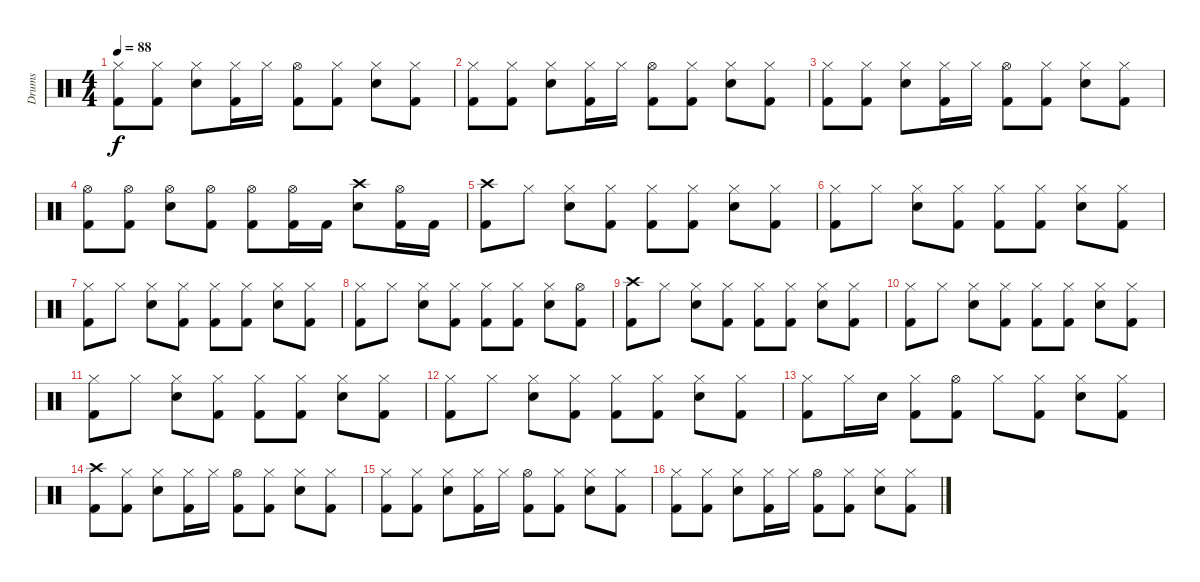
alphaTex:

\track ("Drums" "Drums") {instrument percussion}
\staff {score}
\articulation defaults
\ts (4 4)
\tempo 88
\clef neutral
\ks c
("Hi-Hat (closed)" "Kick (hit) 2").8{dy f} ("Hi-Hat (closed)" "Kick (hit) 2").8 ("Hi-Hat (closed)" "Electric Snare (hit)").8 ("Hi-Hat (closed)" "Kick (hit) 2").16 "Hi-Hat (closed)".16 ("Hi-Hat (open)" "Kick (hit) 2").8 ("Hi-Hat (closed)" "Kick (hit) 2").8 ("Hi-Hat (closed)" "Electric Snare (hit)").8 ("Hi-Hat (closed)" "Kick (hit) 2").8 |
("Hi-Hat (closed)" "Kick (hit) 2").8 ("Hi-Hat (closed)" "Kick (hit) 2").8 ("Hi-Hat (closed)" "Electric Snare (hit)").8 ("Hi-Hat (closed)" "Kick (hit) 2").16 "Hi-Hat (closed)".16 ("Hi-Hat (open)" "Kick (hit) 2").8 ("Hi-Hat (closed)" "Kick (hit) 2").8 ("Hi-Hat (closed)" "Electric Snare (hit)").8 ("Hi-Hat (closed)" "Kick (hit) 2").8 |
("Hi-Hat (closed)" "Kick (hit) 2").8 ("Hi-Hat (closed)" "Kick (hit) 2").8 ("Hi-Hat (closed)" "Electric Snare (hit)").8 ("Hi-Hat (closed)" "Kick (hit) 2").16 "Hi-Hat (closed)".16 ("Hi-Hat (open)" "Kick (hit) 2").8 ("Hi-Hat (closed)" "Kick (hit) 2").8 ("Hi-Hat (closed)" "Electric Snare (hit)").8 ("Hi-Hat (closed)" "Kick (hit) 2").8 |
("Hi-Hat (open)" "Kick (hit) 2").8 ("Hi-Hat (open)" "Kick (hit) 2").8 ("Hi-Hat (open)" "Electric Snare (hit)").8 ("Hi-Hat (open)" "Kick (hit) 2").8 ("Hi-Hat (open)" "Kick (hit) 2").8 ("Hi-Hat (open)" "Kick (hit) 2").16 "Kick (hit) 2".16 ("Crash high (hit)" "Electric Snare (hit)").8 ("Hi-Hat (open)" "Kick (hit) 2").16 "Kick (hit) 2".16 |
("Crash high (hit)" "Kick (hit) 2").8 "Hi-Hat (closed)".8 ("Hi-Hat (closed)" "Electric Snare (hit)").8 ("Hi-Hat (closed)" "Kick (hit) 2").8 ("Hi-Hat (closed)" "Kick (hit) 2").8 ("Hi-Hat (closed)" "Kick (hit) 2").8 ("Hi-Hat (closed)" "Electric Snare (hit)").8 ("Hi-Hat (closed)" "Kick (hit) 2").8 |
("Hi-Hat (closed)" "Kick (hit) 2").8 "Hi-Hat (closed)".8 ("Hi-Hat (closed)" "Electric Snare (hit)").8 ("Hi-Hat (closed)" "Kick (hit) 2").8 ("Hi-Hat (closed)" "Kick (hit) 2").8 ("Hi-Hat (closed)" "Kick (hit) 2").8 ("Hi-Hat (closed)" "Electric Snare (hit)").8 ("Hi-Hat (closed)" "Kick (hit) 2").8 |
("Hi-Hat (closed)" "Kick (hit) 2").8 "Hi-Hat (closed)".8 ("Hi-Hat (closed)" "Electric Snare (hit)").8 ("Hi-Hat (closed)" "Kick (hit) 2").8 ("Hi-Hat (closed)" "Kick (hit) 2").8 ("Hi-Hat (closed)" "Kick (hit) 2").8 ("Hi-Hat (closed)" "Electric Snare (hit)").8 ("Hi-Hat (closed)" "Kick (hit) 2").8 |
("Hi-Hat (closed)" "Kick (hit) 2").8 "Hi-Hat (closed)".8 ("Hi-Hat (closed)" "Electric Snare (hit)").8 ("Hi-Hat (closed)" "Kick (hit) 2").8 ("Hi-Hat (closed)" "Kick (hit) 2").8 ("Hi-Hat (closed)" "Kick (hit) 2").8 ("Hi-Hat (closed)" "Electric Snare (hit)").8 ("Hi-Hat (open)" "Kick (hit) 2").8 |
("Crash high (hit)" "Kick (hit) 2").8 "Hi-Hat (closed)".8 ("Hi-Hat (closed)" "Electric Snare (hit)").8 ("Hi-Hat (closed)" "Kick (hit) 2").8 ("Hi-Hat (closed)" "Kick (hit) 2").8 ("Hi-Hat (closed)" "Kick (hit) 2").8 ("Hi-Hat (closed)" "Electric Snare (hit)").8 ("Hi-Hat (closed)" "Kick (hit) 2").8 |
("Hi-Hat (closed)" "Kick (hit) 2").8 "Hi-Hat (closed)".8 ("Hi-Hat (closed)" "Electric Snare (hit)").8 ("Hi-Hat (closed)" "Kick (hit) 2").8 ("Hi-Hat (closed)" "Kick (hit) 2").8 ("Hi-Hat (closed)" "Kick (hit) 2").8 ("Hi-Hat (closed)" "Electric Snare (hit)").8 ("Hi-Hat (closed)" "Kick (hit) 2").8 |
("Hi-Hat (closed)" "Kick (hit) 2").8 "Hi-Hat (closed)".8 ("Hi-Hat (closed)" "Electric Snare (hit)").8 ("Hi-Hat (closed)" "Kick (hit) 2").8 ("Hi-Hat (closed)" "Kick (hit) 2").8 ("Hi-Hat (closed)" "Kick (hit) 2").8 ("Hi-Hat (closed)" "Electric Snare (hit)").8 ("Hi-Hat (closed)" "Kick (hit) 2").8 |
("Hi-Hat (closed)" "Kick (hit) 2").8 "Hi-Hat (closed)".8 ("Hi-Hat (closed)" "Electric Snare (hit)").8 ("Hi-Hat (closed)" "Kick (hit) 2").8 ("Hi-Hat (closed)" "Kick (hit) 2").8 ("Hi-Hat (closed)" "Kick (hit) 2").8 ("Hi-Hat (closed)" "Electric Snare (hit)").8 ("Hi-Hat (closed)" "Kick (hit) 2").8 |
("Hi-Hat (closed)" "Kick (hit) 2").8 "Hi-Hat (closed)".16 "Electric Snare (hit)".16 ("Hi-Hat (closed)" "Kick (hit) 2").8 ("Hi-Hat (open)" "Kick (hit) 2").8 "Hi-Hat (closed)".8 ("Hi-Hat (closed)" "Kick (hit) 2").8 ("Hi-Hat (closed)" "Electric Snare (hit)").8 ("Hi-Hat (closed)" "Kick (hit) 2").8 |
("Crash high (hit)" "Kick (hit) 2").8 ("Hi-Hat (closed)" "Kick (hit) 2").8 ("Hi-Hat (closed)" "Electric Snare (hit)").8 ("Hi-Hat (closed)" "Kick (hit) 2").16 "Hi-Hat (closed)".16 ("Hi-Hat (open)" "Kick (hit) 2").8 ("Hi-Hat (closed)" "Kick (hit) 2").8 ("Hi-Hat (closed)" "Electric Snare (hit)").8 ("Hi-Hat (closed)" "Kick (hit) 2").8 |
("Hi-Hat (closed)" "Kick (hit) 2").8 ("Hi-Hat (closed)" "Kick (hit) 2").8 ("Hi-Hat (closed)" "Electric Snare (hit)").8 ("Hi-Hat (closed)" "Kick (hit) 2").16 "Hi-Hat (closed)".16 ("Hi-Hat (open)" "Kick (hit) 2").8 ("Hi-Hat (closed)" "Kick (hit) 2").8 ("Hi-Hat (closed)" "Electric Snare (hit)").8 ("Hi-Hat (closed)" "Kick (hit) 2").8 |
("Hi-Hat (closed)" "Kick (hit) 2").8 ("Hi-Hat (closed)" "Kick (hit) 2").8 ("Hi-Hat (closed)" "Electric Snare (hit)").8 ("Hi-Hat (closed)" "Kick (hit) 2").16 "Hi-Hat (closed)".16 ("Hi-Hat (open)" "Kick (hit) 2").8 ("Hi-Hat (closed)" "Kick (hit) 2").8 ("Hi-Hat (closed)" "Electric Snare (hit)").8 ("Hi-Hat (closed)" "Kick (hit) 2").8
